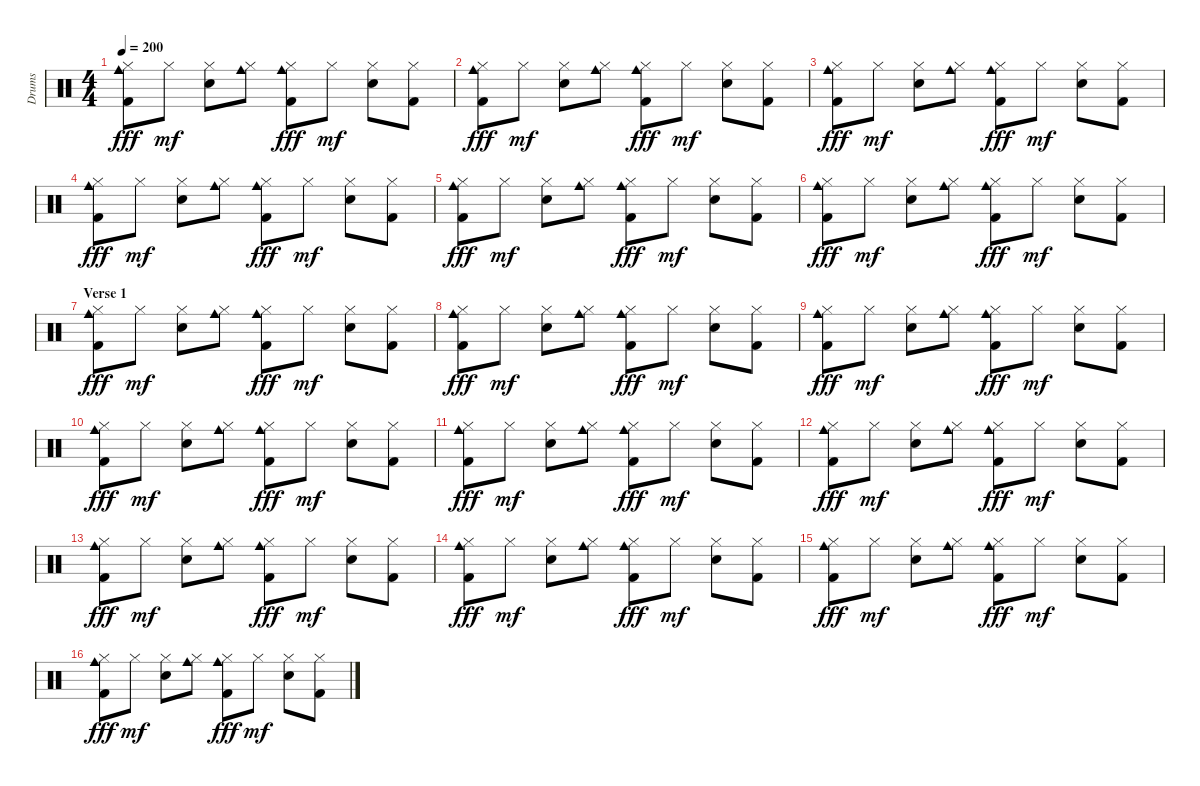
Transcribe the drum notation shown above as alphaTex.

\track ("Drums" "Drums") {instrument percussion}
\staff {score}
\articulation defaults
\ts (4 4)
\tempo 200
\clef neutral
\ks c
("Cowbell medium (hit)" "Hi-Hat (closed)" "Kick (hit) 2").8{dy fff} "Hi-Hat (closed)".8{dy mf} ("Hi-Hat (closed)" "Electric Snare (hit)").8 ("Cowbell medium (hit)" "Hi-Hat (closed)").8 ("Cowbell medium (hit)" "Hi-Hat (closed)" "Kick (hit) 2").8{dy fff} "Hi-Hat (closed)".8{dy mf} ("Hi-Hat (closed)" "Electric Snare (hit)").8 ("Hi-Hat (closed)" "Kick (hit) 2").8 |
("Cowbell medium (hit)" "Hi-Hat (closed)" "Kick (hit) 2").8{dy fff} "Hi-Hat (closed)".8{dy mf} ("Hi-Hat (closed)" "Electric Snare (hit)").8 ("Cowbell medium (hit)" "Hi-Hat (closed)").8 ("Cowbell medium (hit)" "Hi-Hat (closed)" "Kick (hit) 2").8{dy fff} "Hi-Hat (closed)".8{dy mf} ("Hi-Hat (closed)" "Electric Snare (hit)").8 ("Hi-Hat (closed)" "Kick (hit) 2").8 |
("Cowbell medium (hit)" "Hi-Hat (closed)" "Kick (hit) 2").8{dy fff} "Hi-Hat (closed)".8{dy mf} ("Hi-Hat (closed)" "Electric Snare (hit)").8 ("Cowbell medium (hit)" "Hi-Hat (closed)").8 ("Cowbell medium (hit)" "Hi-Hat (closed)" "Kick (hit) 2").8{dy fff} "Hi-Hat (closed)".8{dy mf} ("Hi-Hat (closed)" "Electric Snare (hit)").8 ("Hi-Hat (closed)" "Kick (hit) 2").8 |
("Cowbell medium (hit)" "Hi-Hat (closed)" "Kick (hit) 2").8{dy fff} "Hi-Hat (closed)".8{dy mf} ("Hi-Hat (closed)" "Electric Snare (hit)").8 ("Cowbell medium (hit)" "Hi-Hat (closed)").8 ("Cowbell medium (hit)" "Hi-Hat (closed)" "Kick (hit) 2").8{dy fff} "Hi-Hat (closed)".8{dy mf} ("Hi-Hat (closed)" "Electric Snare (hit)").8 ("Hi-Hat (closed)" "Kick (hit) 2").8 |
("Cowbell medium (hit)" "Hi-Hat (closed)" "Kick (hit) 2").8{dy fff} "Hi-Hat (closed)".8{dy mf} ("Hi-Hat (closed)" "Electric Snare (hit)").8 ("Cowbell medium (hit)" "Hi-Hat (closed)").8 ("Cowbell medium (hit)" "Hi-Hat (closed)" "Kick (hit) 2").8{dy fff} "Hi-Hat (closed)".8{dy mf} ("Hi-Hat (closed)" "Electric Snare (hit)").8 ("Hi-Hat (closed)" "Kick (hit) 2").8 |
("Cowbell medium (hit)" "Hi-Hat (closed)" "Kick (hit) 2").8{dy fff} "Hi-Hat (closed)".8{dy mf} ("Hi-Hat (closed)" "Electric Snare (hit)").8 ("Cowbell medium (hit)" "Hi-Hat (closed)").8 ("Cowbell medium (hit)" "Hi-Hat (closed)" "Kick (hit) 2").8{dy fff} "Hi-Hat (closed)".8{dy mf} ("Hi-Hat (closed)" "Electric Snare (hit)").8 ("Hi-Hat (closed)" "Kick (hit) 2").8 |
\section ("" "Verse 1")
("Cowbell medium (hit)" "Hi-Hat (closed)" "Kick (hit) 2").8{dy fff} "Hi-Hat (closed)".8{dy mf} ("Hi-Hat (closed)" "Electric Snare (hit)").8 ("Cowbell medium (hit)" "Hi-Hat (closed)").8 ("Cowbell medium (hit)" "Hi-Hat (closed)" "Kick (hit) 2").8{dy fff} "Hi-Hat (closed)".8{dy mf} ("Hi-Hat (closed)" "Electric Snare (hit)").8 ("Hi-Hat (closed)" "Kick (hit) 2").8 |
("Cowbell medium (hit)" "Hi-Hat (closed)" "Kick (hit) 2").8{dy fff} "Hi-Hat (closed)".8{dy mf} ("Hi-Hat (closed)" "Electric Snare (hit)").8 ("Cowbell medium (hit)" "Hi-Hat (closed)").8 ("Cowbell medium (hit)" "Hi-Hat (closed)" "Kick (hit) 2").8{dy fff} "Hi-Hat (closed)".8{dy mf} ("Hi-Hat (closed)" "Electric Snare (hit)").8 ("Hi-Hat (closed)" "Kick (hit) 2").8 |
("Cowbell medium (hit)" "Hi-Hat (closed)" "Kick (hit) 2").8{dy fff} "Hi-Hat (closed)".8{dy mf} ("Hi-Hat (closed)" "Electric Snare (hit)").8 ("Cowbell medium (hit)" "Hi-Hat (closed)").8 ("Cowbell medium (hit)" "Hi-Hat (closed)" "Kick (hit) 2").8{dy fff} "Hi-Hat (closed)".8{dy mf} ("Hi-Hat (closed)" "Electric Snare (hit)").8 ("Hi-Hat (closed)" "Kick (hit) 2").8 |
("Cowbell medium (hit)" "Hi-Hat (closed)" "Kick (hit) 2").8{dy fff} "Hi-Hat (closed)".8{dy mf} ("Hi-Hat (closed)" "Electric Snare (hit)").8 ("Cowbell medium (hit)" "Hi-Hat (closed)").8 ("Cowbell medium (hit)" "Hi-Hat (closed)" "Kick (hit) 2").8{dy fff} "Hi-Hat (closed)".8{dy mf} ("Hi-Hat (closed)" "Electric Snare (hit)").8 ("Hi-Hat (closed)" "Kick (hit) 2").8 |
("Cowbell medium (hit)" "Hi-Hat (closed)" "Kick (hit) 2").8{dy fff} "Hi-Hat (closed)".8{dy mf} ("Hi-Hat (closed)" "Electric Snare (hit)").8 ("Cowbell medium (hit)" "Hi-Hat (closed)").8 ("Cowbell medium (hit)" "Hi-Hat (closed)" "Kick (hit) 2").8{dy fff} "Hi-Hat (closed)".8{dy mf} ("Hi-Hat (closed)" "Electric Snare (hit)").8 ("Hi-Hat (closed)" "Kick (hit) 2").8 |
("Cowbell medium (hit)" "Hi-Hat (closed)" "Kick (hit) 2").8{dy fff} "Hi-Hat (closed)".8{dy mf} ("Hi-Hat (closed)" "Electric Snare (hit)").8 ("Cowbell medium (hit)" "Hi-Hat (closed)").8 ("Cowbell medium (hit)" "Hi-Hat (closed)" "Kick (hit) 2").8{dy fff} "Hi-Hat (closed)".8{dy mf} ("Hi-Hat (closed)" "Electric Snare (hit)").8 ("Hi-Hat (closed)" "Kick (hit) 2").8 |
("Cowbell medium (hit)" "Hi-Hat (closed)" "Kick (hit) 2").8{dy fff} "Hi-Hat (closed)".8{dy mf} ("Hi-Hat (closed)" "Electric Snare (hit)").8 ("Cowbell medium (hit)" "Hi-Hat (closed)").8 ("Cowbell medium (hit)" "Hi-Hat (closed)" "Kick (hit) 2").8{dy fff} "Hi-Hat (closed)".8{dy mf} ("Hi-Hat (closed)" "Electric Snare (hit)").8 ("Hi-Hat (closed)" "Kick (hit) 2").8 |
("Cowbell medium (hit)" "Hi-Hat (closed)" "Kick (hit) 2").8{dy fff} "Hi-Hat (closed)".8{dy mf} ("Hi-Hat (closed)" "Electric Snare (hit)").8 ("Cowbell medium (hit)" "Hi-Hat (closed)").8 ("Cowbell medium (hit)" "Hi-Hat (closed)" "Kick (hit) 2").8{dy fff} "Hi-Hat (closed)".8{dy mf} ("Hi-Hat (closed)" "Electric Snare (hit)").8 ("Hi-Hat (closed)" "Kick (hit) 2").8 |
("Cowbell medium (hit)" "Hi-Hat (closed)" "Kick (hit) 2").8{dy fff} "Hi-Hat (closed)".8{dy mf} ("Hi-Hat (closed)" "Electric Snare (hit)").8 ("Cowbell medium (hit)" "Hi-Hat (closed)").8 ("Cowbell medium (hit)" "Hi-Hat (closed)" "Kick (hit) 2").8{dy fff} "Hi-Hat (closed)".8{dy mf} ("Hi-Hat (closed)" "Electric Snare (hit)").8 ("Hi-Hat (closed)" "Kick (hit) 2").8 |
("Cowbell medium (hit)" "Hi-Hat (closed)" "Kick (hit) 2").8{dy fff} "Hi-Hat (closed)".8{dy mf} ("Hi-Hat (closed)" "Electric Snare (hit)").8 ("Cowbell medium (hit)" "Hi-Hat (closed)").8 ("Cowbell medium (hit)" "Hi-Hat (closed)" "Kick (hit) 2").8{dy fff} "Hi-Hat (closed)".8{dy mf} ("Hi-Hat (closed)" "Electric Snare (hit)").8 ("Hi-Hat (closed)" "Kick (hit) 2").8
